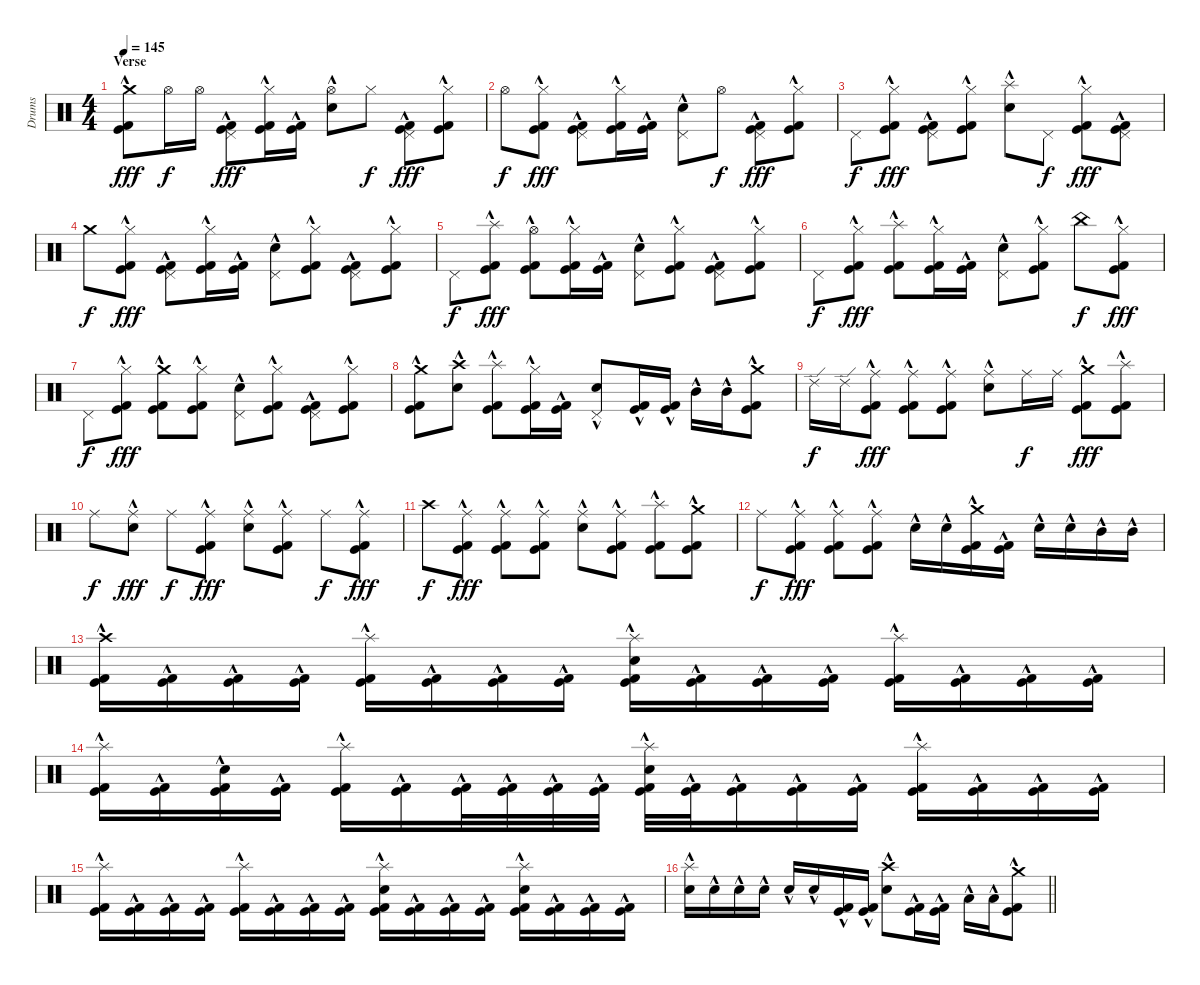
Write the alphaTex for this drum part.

\track ("Drums" "Drums") {instrument percussion}
\staff {score}
\articulation defaults
\ts (4 4)
\section ("" "Verse ")
\tempo 145
\clef neutral
\ks c
("Crash medium (hit)" "Kick (hit)"{hac} "Kick (hit) 2"{hac}).8{dy fff} "Hi-Hat (open)".16{dy f} "Hi-Hat (open)".16 ("Pedal Hi-Hat (hit)" "Kick (hit)"{hac} "Kick (hit) 2"{hac}).8{dy fff} ("Hi-Hat (closed)" "Kick (hit)"{hac} "Kick (hit) 2"{hac}).16 ("Kick (hit)"{hac} "Kick (hit) 2"{hac}).16 ("Hi-Hat (open)" "Electric Snare (hit)"{hac}).8 "Hi-Hat (closed)".8{dy f} ("Pedal Hi-Hat (hit)" "Kick (hit)"{hac} "Kick (hit) 2"{hac}).8{dy fff} ("Hi-Hat (closed)" "Kick (hit)"{hac} "Kick (hit) 2"{hac}).8 |
"Hi-Hat (open)".8{dy f} ("Hi-Hat (closed)" "Kick (hit)"{hac} "Kick (hit) 2"{hac}).8{dy fff} ("Pedal Hi-Hat (hit)" "Kick (hit)"{hac} "Kick (hit) 2"{hac}).8 ("Hi-Hat (closed)" "Kick (hit)"{hac} "Kick (hit) 2"{hac}).16 ("Kick (hit)"{hac} "Kick (hit) 2"{hac}).16 ("Pedal Hi-Hat (hit)" "Electric Snare (hit)"{hac}).8 "Hi-Hat (open)".8{dy f} ("Pedal Hi-Hat (hit)" "Kick (hit)"{hac} "Kick (hit) 2"{hac}).8{dy fff} ("Hi-Hat (closed)" "Kick (hit)"{hac} "Kick (hit) 2"{hac}).8 |
"Pedal Hi-Hat (hit)".8{dy f} ("Hi-Hat (closed)" "Kick (hit)"{hac} "Kick (hit) 2"{hac}).8{dy fff} ("Pedal Hi-Hat (hit)" "Kick (hit)"{hac} "Kick (hit) 2"{hac}).8 ("Hi-Hat (closed)" "Kick (hit)"{hac} "Kick (hit) 2"{hac}).8 ("Splash (hit)" "Electric Snare (hit)"{hac}).8 "Pedal Hi-Hat (hit)".8{dy f} ("Hi-Hat (closed)" "Kick (hit)"{hac} "Kick (hit) 2"{hac}).8{dy fff} ("Pedal Hi-Hat (hit)" "Kick (hit)"{hac} "Kick (hit) 2"{hac}).8 |
"Crash medium (hit)".8{dy f} ("Hi-Hat (closed)" "Kick (hit)"{hac} "Kick (hit) 2"{hac}).8{dy fff} ("Pedal Hi-Hat (hit)" "Kick (hit)"{hac} "Kick (hit) 2"{hac}).8 ("Hi-Hat (closed)" "Kick (hit)"{hac} "Kick (hit) 2"{hac}).16 ("Kick (hit)"{hac} "Kick (hit) 2"{hac}).16 ("Pedal Hi-Hat (hit)" "Electric Snare (hit)"{hac}).8 ("Hi-Hat (closed)" "Kick (hit)"{hac} "Kick (hit) 2"{hac}).8 ("Pedal Hi-Hat (hit)" "Kick (hit)"{hac} "Kick (hit) 2"{hac}).8 ("Hi-Hat (closed)" "Kick (hit)"{hac} "Kick (hit) 2"{hac}).8 |
"Pedal Hi-Hat (hit)".8{dy f} ("Splash (hit)" "Kick (hit)"{hac} "Kick (hit) 2").8{dy fff} ("Hi-Hat (open)" "Kick (hit)"{hac} "Kick (hit) 2"{hac}).8 ("Hi-Hat (closed)" "Kick (hit)"{hac} "Kick (hit) 2"{hac}).16 ("Kick (hit)"{hac} "Kick (hit) 2"{hac}).16 ("Pedal Hi-Hat (hit)" "Electric Snare (hit)"{hac}).8 ("Hi-Hat (closed)" "Kick (hit)"{hac} "Kick (hit) 2"{hac}).8 ("Pedal Hi-Hat (hit)" "Kick (hit)"{hac} "Kick (hit) 2"{hac}).8 ("Hi-Hat (closed)" "Kick (hit)"{hac} "Kick (hit) 2"{hac}).8 |
"Pedal Hi-Hat (hit)".8{dy f} ("Hi-Hat (closed)" "Kick (hit)"{hac} "Kick (hit) 2"{hac}).8{dy fff} ("Splash (hit)" "Kick (hit)"{hac} "Kick (hit) 2"{hac}).8 ("Hi-Hat (closed)" "Kick (hit)"{hac} "Kick (hit) 2"{hac}).16 ("Kick (hit)"{hac} "Kick (hit) 2"{hac}).16 ("Pedal Hi-Hat (hit)" "Electric Snare (hit)"{hac}).8 ("Hi-Hat (closed)" "Kick (hit)"{hac} "Kick (hit) 2"{hac}).8 "China (hit)".8{dy f} ("Hi-Hat (closed)" "Kick (hit)"{hac} "Kick (hit) 2"{hac}).8{dy fff} |
"Pedal Hi-Hat (hit)".8{dy f} ("Hi-Hat (closed)" "Kick (hit)"{hac} "Kick (hit) 2"{hac}).8{dy fff} ("Crash medium (hit)" "Kick (hit)"{hac} "Kick (hit) 2"{hac}).8 ("Hi-Hat (closed)" "Kick (hit)"{hac} "Kick (hit) 2"{hac}).8 ("Pedal Hi-Hat (hit)" "Electric Snare (hit)"{hac}).8 ("Hi-Hat (closed)" "Kick (hit)"{hac} "Kick (hit) 2"{hac}).8 ("Pedal Hi-Hat (hit)" "Kick (hit)"{hac} "Kick (hit) 2"{hac}).8 ("Hi-Hat (closed)" "Kick (hit)"{hac} "Kick (hit) 2"{hac}).8 |
("Crash medium (hit)" "Kick (hit)"{hac} "Kick (hit) 2"{hac}).8 ("Crash high (hit)" "Electric Snare (hit)"{hac}).8 ("Splash (hit)" "Kick (hit)"{hac} "Kick (hit) 2"{hac}).8 ("Hi-Hat (closed)" "Kick (hit)"{hac} "Kick (hit) 2"{hac}).16 ("Kick (hit)"{hac} "Kick (hit) 2"{hac}).16 ("Pedal Hi-Hat (hit)" "Electric Snare (hit)"{hac}).8 ("Kick (hit)"{hac} "Kick (hit) 2"{hac}).16 ("Kick (hit)"{hac} "Kick (hit) 2"{hac}).16 "Mid Tom (hit)"{hac}.16 "Mid Tom (hit)"{hac}.16 ("Crash medium (hit)" "Kick (hit)"{hac} "Kick (hit) 2"{hac}).8 |
"Ride (edge) 2".16{dy f} "Ride (edge) 2".16 ("Ride (middle)" "Kick (hit)"{hac} "Kick (hit) 2"{hac}).8{dy fff} ("Ride (middle)" "Kick (hit)"{hac} "Kick (hit) 2"{hac}).8 ("Ride (middle)" "Kick (hit)"{hac} "Kick (hit) 2"{hac}).8 ("Ride (middle)" "Electric Snare (hit)"{hac}).8 "Ride (middle)".16{dy f} "Ride (middle)".16 ("Crash medium (hit)" "Kick (hit)"{hac} "Kick (hit) 2"{hac}).8{dy fff} ("Splash (hit)" "Kick (hit)"{hac} "Kick (hit) 2"{hac}).8 |
"Ride (middle)".8{dy f} ("Ride (middle)" "Electric Snare (hit)"{hac}).8{dy fff} "Ride (middle)".8{dy f} ("Ride (middle)" "Kick (hit)"{hac} "Kick (hit) 2"{hac}).8{dy fff} ("Ride (middle)" "Electric Snare (hit)"{hac}).8 ("Ride (middle)" "Kick (hit)"{hac} "Kick (hit) 2"{hac}).8 "Ride (middle)".8{dy f} ("Ride (middle)" "Kick (hit)"{hac} "Kick (hit) 2"{hac}).8{dy fff} |
"Crash high (hit)".8{dy f} ("Ride (middle)" "Kick (hit)"{hac} "Kick (hit) 2"{hac}).8{dy fff} ("Ride (middle)" "Kick (hit)"{hac} "Kick (hit) 2"{hac}).8 ("Ride (middle)" "Kick (hit)"{hac} "Kick (hit) 2"{hac}).8 ("Ride (middle)" "Electric Snare (hit)"{hac}).8 ("Ride (middle)" "Kick (hit)"{hac} "Kick (hit) 2"{hac}).8 ("Splash (hit)" "Kick (hit)"{hac} "Kick (hit) 2"{hac}).8 ("Crash medium (hit)" "Kick (hit)"{hac} "Kick (hit) 2"{hac}).8 |
"Ride (middle)".8{dy f} ("Ride (middle)" "Kick (hit)"{hac} "Kick (hit) 2"{hac}).8{dy fff} ("Ride (middle)" "Kick (hit)"{hac} "Kick (hit) 2"{hac}).8 ("Ride (middle)" "Kick (hit)"{hac} "Kick (hit) 2"{hac}).8 "Electric Snare (hit)"{hac}.16 "Electric Snare (hit)"{hac}.16 ("Crash medium (hit)" "Kick (hit)"{hac} "Kick (hit) 2"{hac}).16 ("Kick (hit)"{hac} "Kick (hit) 2"{hac}).16 "Electric Snare (hit)"{hac}.16 "Electric Snare (hit)"{hac}.16 "Mid Tom (hit)"{hac}.16 "Mid Tom (hit)"{hac}.16 |
("Crash high (hit)" "Kick (hit)"{hac} "Kick (hit) 2"{hac}).16 ("Kick (hit)"{hac} "Kick (hit) 2"{hac}).16 ("Kick (hit)"{hac} "Kick (hit) 2"{hac}).16 ("Kick (hit)"{hac} "Kick (hit) 2"{hac}).16 ("Splash (hit)" "Kick (hit)"{hac} "Kick (hit) 2"{hac}).16 ("Kick (hit)"{hac} "Kick (hit) 2"{hac}).16 ("Kick (hit)"{hac} "Kick (hit) 2"{hac}).16 ("Kick (hit)"{hac} "Kick (hit) 2"{hac}).16 ("Splash (hit)" "Electric Snare (hit)"{hac} "Kick (hit)"{hac} "Kick (hit) 2"{hac}).16 ("Kick (hit)"{hac} "Kick (hit) 2"{hac}).16 ("Kick (hit)"{hac} "Kick (hit) 2"{hac}).16 ("Kick (hit)"{hac} "Kick (hit) 2"{hac}).16 ("Splash (hit)" "Kick (hit)"{hac} "Kick (hit) 2"{hac}).16 ("Kick (hit)"{hac} "Kick (hit) 2"{hac}).16 ("Kick (hit)"{hac} "Kick (hit) 2"{hac}).16 ("Kick (hit)"{hac} "Kick (hit) 2"{hac}).16 |
("Splash (hit)" "Kick (hit)"{hac} "Kick (hit) 2"{hac}).16 ("Kick (hit)"{hac} "Kick (hit) 2"{hac}).16 ("Electric Snare (hit)"{hac} "Kick (hit)"{hac} "Kick (hit) 2"{hac}).16 ("Kick (hit)"{hac} "Kick (hit) 2"{hac}).16 ("Splash (hit)" "Kick (hit)"{hac} "Kick (hit) 2"{hac}).16 ("Kick (hit)"{hac} "Kick (hit) 2"{hac}).16 ("Kick (hit)"{hac} "Kick (hit) 2"{hac}).32 ("Kick (hit)"{hac} "Kick (hit) 2"{hac}).32 ("Kick (hit)"{hac} "Kick (hit) 2"{hac}).32 ("Kick (hit)"{hac} "Kick (hit) 2"{hac}).32 ("Splash (hit)" "Electric Snare (hit)"{hac} "Kick (hit)"{hac} "Kick (hit) 2"{hac}).32 ("Kick (hit)"{hac} "Kick (hit) 2"{hac}).32 ("Kick (hit)"{hac} "Kick (hit) 2"{hac}).16 ("Kick (hit)"{hac} "Kick (hit) 2"{hac}).16 ("Kick (hit)"{hac} "Kick (hit) 2"{hac}).16 ("Splash (hit)" "Kick (hit)"{hac} "Kick (hit) 2"{hac}).16 ("Kick (hit)"{hac} "Kick (hit) 2"{hac}).16 ("Kick (hit)"{hac} "Kick (hit) 2"{hac}).16 ("Kick (hit)"{hac} "Kick (hit) 2"{hac}).16 |
("Splash (hit)" "Kick (hit)"{hac} "Kick (hit) 2"{hac}).16 ("Kick (hit)"{hac} "Kick (hit) 2"{hac}).16 ("Kick (hit)"{hac} "Kick (hit) 2"{hac}).16 ("Kick (hit)"{hac} "Kick (hit) 2"{hac}).16 ("Splash (hit)" "Kick (hit)"{hac} "Kick (hit) 2"{hac}).16 ("Kick (hit)"{hac} "Kick (hit) 2"{hac}).16 ("Kick (hit)"{hac} "Kick (hit) 2"{hac}).16 ("Kick (hit)"{hac} "Kick (hit) 2"{hac}).16 ("Splash (hit)" "Electric Snare (hit)"{hac} "Kick (hit)" "Kick (hit) 2"{hac}).16 ("Kick (hit)"{hac} "Kick (hit) 2"{hac}).16 ("Kick (hit)"{hac} "Kick (hit) 2"{hac}).16 ("Kick (hit)"{hac} "Kick (hit) 2"{hac}).16 ("Splash (hit)" "Electric Snare (hit)"{hac} "Kick (hit)"{hac} "Kick (hit) 2"{hac}).16 ("Kick (hit)"{hac} "Kick (hit) 2"{hac}).16 ("Kick (hit)"{hac} "Kick (hit) 2"{hac}).16 ("Kick (hit)"{hac} "Kick (hit) 2"{hac}).16 |
\barLineRight lightlight
("Splash (hit)" "Electric Snare (hit)"{hac}).16 "Electric Snare (hit)"{hac}.16 "Electric Snare (hit)"{hac}.16 "Electric Snare (hit)"{hac}.16 "Electric Snare (hit)"{hac}.16 "Electric Snare (hit)"{hac}.16 ("Kick (hit)"{hac} "Kick (hit) 2"{hac}).16 ("Kick (hit)"{hac} "Kick (hit) 2"{hac}).16 ("Crash high (hit)" "Electric Snare (hit)"{hac}).8 ("Kick (hit)"{hac} "Kick (hit) 2"{hac}).16 ("Kick (hit)"{hac} "Kick (hit) 2"{hac}).16 "Low Tom (hit)"{hac}.16 "Low Tom (hit)"{hac}.16 ("Crash medium (hit)" "Kick (hit)"{hac} "Kick (hit) 2"{hac}).8
